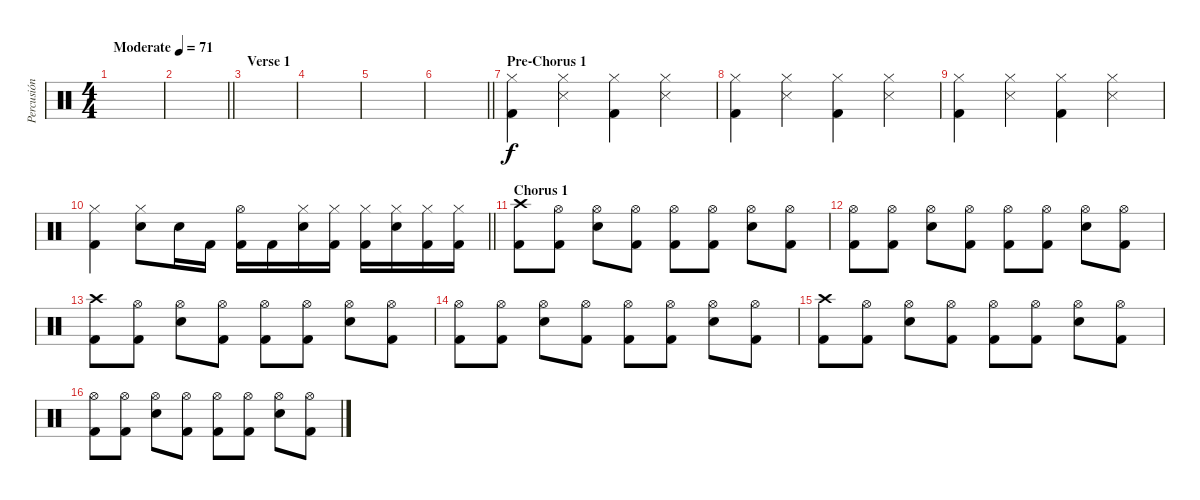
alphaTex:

\track ("Percusión" "Percusión") {instrument percussion}
\staff {score}
\articulation defaults
\ts (4 4)
\tempo (71 "Moderate")
\clef neutral
\ks c
|
\barLineRight lightlight
|
\section ("" "Verse 1")
|
|
|
\barLineRight lightlight
|
\section ("" "Pre-Chorus 1")
("Hi-Hat (closed)" "Kick (hit) 2").4 ("Hi-Hat (closed)" "Snare (side stick) 3").4 ("Hi-Hat (closed)" "Kick (hit) 2").4 ("Hi-Hat (closed)" "Snare (side stick) 3").4 |
("Hi-Hat (closed)" "Kick (hit) 2").4 ("Hi-Hat (closed)" "Snare (side stick) 3").4 ("Hi-Hat (closed)" "Kick (hit) 2").4 ("Hi-Hat (closed)" "Snare (side stick) 3").4 |
("Hi-Hat (closed)" "Kick (hit) 2").4 ("Hi-Hat (closed)" "Snare (side stick) 3").4 ("Hi-Hat (closed)" "Kick (hit) 2").4 ("Hi-Hat (closed)" "Snare (side stick) 3").4 |
\barLineRight lightlight
("Hi-Hat (closed)" "Kick (hit) 2").4 ("Hi-Hat (closed)" "Snare (hit) 2").8 "Snare (hit) 2".16 "Kick (hit) 2".16 ("Hi-Hat (open)" "Kick (hit) 2").16 "Kick (hit) 2".16 ("Hi-Hat (closed)" "Snare (hit) 2").16 ("Hi-Hat (closed)" "Kick (hit) 2").16 ("Hi-Hat (closed)" "Kick (hit) 2").16 ("Hi-Hat (closed)" "Snare (hit) 2").16 ("Hi-Hat (closed)" "Kick (hit) 2").16 ("Hi-Hat (closed)" "Kick (hit) 2").16 |
\section ("" "Chorus 1")
("Crash high (hit)" "Kick (hit) 2").8 ("Hi-Hat (open)" "Kick (hit) 2").8 ("Hi-Hat (open)" "Snare (hit) 2").8 ("Hi-Hat (open)" "Kick (hit) 2").8 ("Hi-Hat (open)" "Kick (hit) 2").8 ("Hi-Hat (open)" "Kick (hit) 2").8 ("Hi-Hat (open)" "Snare (hit) 2").8 ("Hi-Hat (open)" "Kick (hit) 2").8 |
("Hi-Hat (open)" "Kick (hit) 2").8 ("Hi-Hat (open)" "Kick (hit) 2").8 ("Hi-Hat (open)" "Snare (hit) 2").8 ("Hi-Hat (open)" "Kick (hit) 2").8 ("Hi-Hat (open)" "Kick (hit) 2").8 ("Hi-Hat (open)" "Kick (hit) 2").8 ("Hi-Hat (open)" "Snare (hit) 2").8 ("Hi-Hat (open)" "Kick (hit) 2").8 |
("Crash high (hit)" "Kick (hit) 2").8 ("Hi-Hat (open)" "Kick (hit) 2").8 ("Hi-Hat (open)" "Snare (hit) 2").8 ("Hi-Hat (open)" "Kick (hit) 2").8 ("Hi-Hat (open)" "Kick (hit) 2").8 ("Hi-Hat (open)" "Kick (hit) 2").8 ("Hi-Hat (open)" "Snare (hit) 2").8 ("Hi-Hat (open)" "Kick (hit) 2").8 |
("Hi-Hat (open)" "Kick (hit) 2").8 ("Hi-Hat (open)" "Kick (hit) 2").8 ("Hi-Hat (open)" "Snare (hit) 2").8 ("Hi-Hat (open)" "Kick (hit) 2").8 ("Hi-Hat (open)" "Kick (hit) 2").8 ("Hi-Hat (open)" "Kick (hit) 2").8 ("Hi-Hat (open)" "Snare (hit) 2").8 ("Hi-Hat (open)" "Kick (hit) 2").8 |
("Crash high (hit)" "Kick (hit) 2").8 ("Hi-Hat (open)" "Kick (hit) 2").8 ("Hi-Hat (open)" "Snare (hit) 2").8 ("Hi-Hat (open)" "Kick (hit) 2").8 ("Hi-Hat (open)" "Kick (hit) 2").8 ("Hi-Hat (open)" "Kick (hit) 2").8 ("Hi-Hat (open)" "Snare (hit) 2").8 ("Hi-Hat (open)" "Kick (hit) 2").8 |
("Hi-Hat (open)" "Kick (hit) 2").8 ("Hi-Hat (open)" "Kick (hit) 2").8 ("Hi-Hat (open)" "Snare (hit) 2").8 ("Hi-Hat (open)" "Kick (hit) 2").8 ("Hi-Hat (open)" "Kick (hit) 2").8 ("Hi-Hat (open)" "Kick (hit) 2").8 ("Hi-Hat (open)" "Snare (hit) 2").8 ("Hi-Hat (open)" "Kick (hit) 2").8
